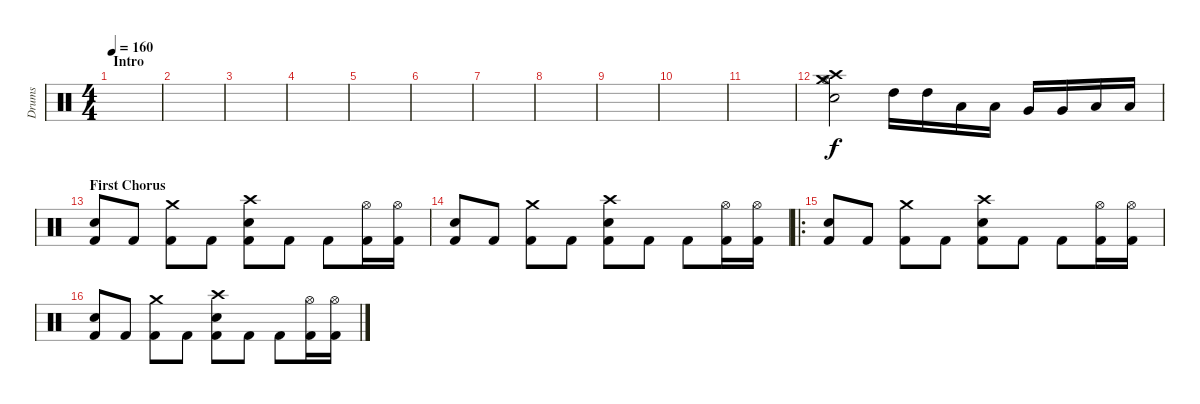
\track ("Drums" "Drums") {instrument percussion}
\staff {score}
\articulation defaults
\ts (4 4)
\section ("" "Intro")
\tempo 160
\clef neutral
\ks c
|
|
|
|
|
|
|
|
|
|
|
("Crash high (hit)" "Hi-Hat (open)" "Snare (hit) 2" "Crash medium (hit)").2 "High Tom (hit)".16 "High Tom (hit)".16 "Low Tom (hit)".16 "Low Tom (hit)".16 "Very Low Tom (hit)".16 "Very Low Tom (hit)".16 "Low Floor Tom (hit)".16 "Low Floor Tom (hit)".16 |
\section ("" "First Chorus")
("Kick (hit) 2" "Electric Snare (hit)").8 "Kick (hit) 2".8 ("Kick (hit) 2" "Crash medium (hit)").8 "Kick (hit) 2".8 ("Kick (hit) 2" "Crash high (hit)" "Electric Snare (hit)").8 "Kick (hit) 2".8 "Kick (hit) 2".8 ("Kick (hit) 2" "Hi-Hat (open)").16 ("Kick (hit) 2" "Hi-Hat (open)").16 |
("Kick (hit) 2" "Electric Snare (hit)").8 "Kick (hit) 2".8 ("Kick (hit) 2" "Crash medium (hit)").8 "Kick (hit) 2".8 ("Kick (hit) 2" "Crash high (hit)" "Electric Snare (hit)").8 "Kick (hit) 2".8 "Kick (hit) 2".8 ("Kick (hit) 2" "Hi-Hat (open)").16 ("Kick (hit) 2" "Hi-Hat (open)").16 |
\ro
("Kick (hit) 2" "Electric Snare (hit)").8 "Kick (hit) 2".8 ("Kick (hit) 2" "Crash medium (hit)").8 "Kick (hit) 2".8 ("Kick (hit) 2" "Crash high (hit)" "Electric Snare (hit)").8 "Kick (hit) 2".8 "Kick (hit) 2".8 ("Kick (hit) 2" "Hi-Hat (open)").16 ("Kick (hit) 2" "Hi-Hat (open)").16 |
("Kick (hit) 2" "Electric Snare (hit)").8 "Kick (hit) 2".8 ("Kick (hit) 2" "Crash medium (hit)").8 "Kick (hit) 2".8 ("Kick (hit) 2" "Crash high (hit)" "Electric Snare (hit)").8 "Kick (hit) 2".8 "Kick (hit) 2".8 ("Kick (hit) 2" "Hi-Hat (open)").16 ("Kick (hit) 2" "Hi-Hat (open)").16
